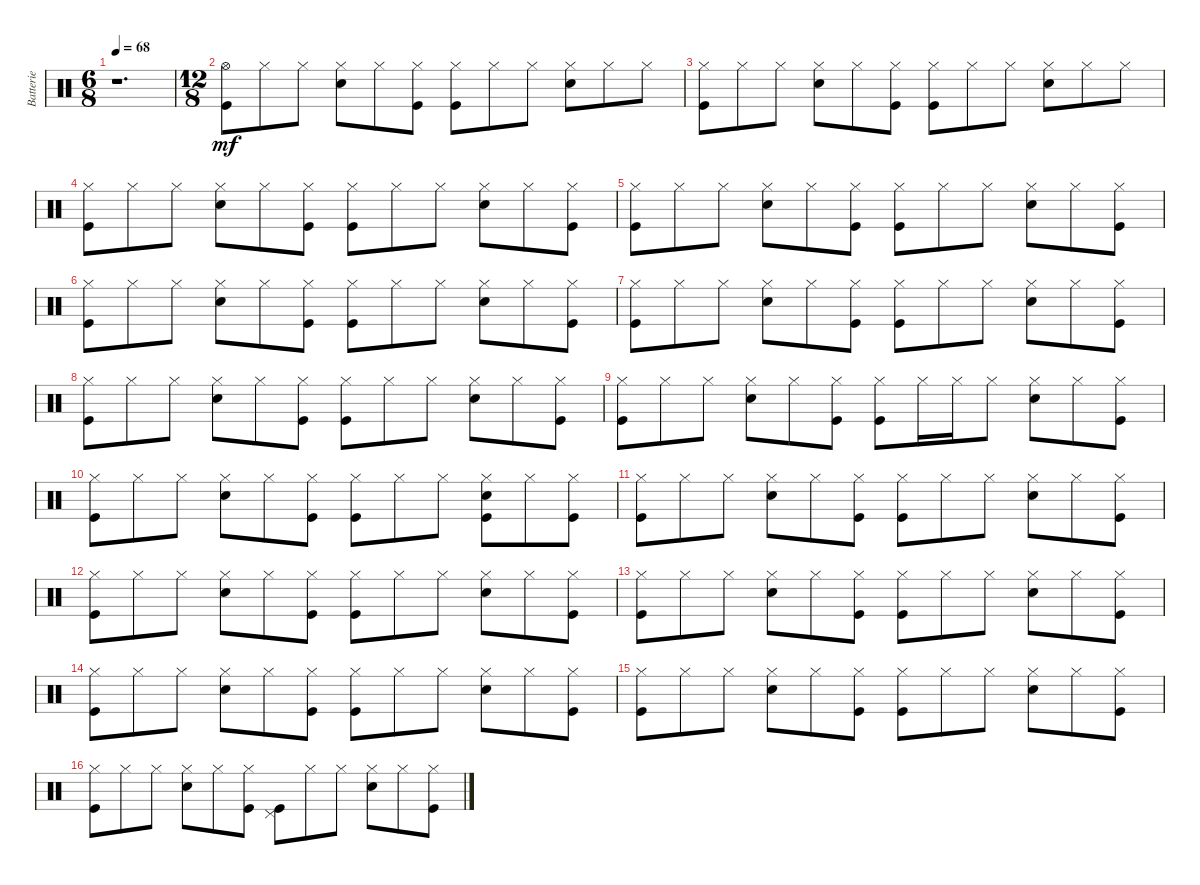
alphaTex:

\track ("Batterie" "Batterie") {instrument percussion}
\staff {score}
\articulation defaults
\ts (6 8)
\tempo 68
\clef neutral
\ks c
r.1{d dy mf} |
\ts (12 8)
("Hi-Hat (open)" "Kick (hit)").8 "Hi-Hat (closed)".8 "Hi-Hat (closed)".8 ("Hi-Hat (closed)" "Snare (hit) 2").8 "Hi-Hat (closed)".8 ("Hi-Hat (closed)" "Kick (hit)").8 ("Hi-Hat (closed)" "Kick (hit)").8 "Hi-Hat (closed)".8 "Hi-Hat (closed)".8 ("Hi-Hat (closed)" "Snare (hit) 2").8 "Hi-Hat (closed)".8 "Hi-Hat (closed)".8 |
("Hi-Hat (closed)" "Kick (hit)").8 "Hi-Hat (closed)".8 "Hi-Hat (closed)".8 ("Hi-Hat (closed)" "Snare (hit) 2").8 "Hi-Hat (closed)".8 ("Hi-Hat (closed)" "Kick (hit)").8 ("Hi-Hat (closed)" "Kick (hit)").8 "Hi-Hat (closed)".8 "Hi-Hat (closed)".8 ("Hi-Hat (closed)" "Snare (hit) 2").8 "Hi-Hat (closed)".8 "Hi-Hat (closed)".8 |
("Hi-Hat (closed)" "Kick (hit)").8 "Hi-Hat (closed)".8 "Hi-Hat (closed)".8 ("Hi-Hat (closed)" "Snare (hit) 2").8 "Hi-Hat (closed)".8 ("Hi-Hat (closed)" "Kick (hit)").8 ("Hi-Hat (closed)" "Kick (hit)").8 "Hi-Hat (closed)".8 "Hi-Hat (closed)".8 ("Hi-Hat (closed)" "Snare (hit) 2").8 "Hi-Hat (closed)".8 ("Hi-Hat (closed)" "Kick (hit)").8 |
("Hi-Hat (closed)" "Kick (hit)").8 "Hi-Hat (closed)".8 "Hi-Hat (closed)".8 ("Hi-Hat (closed)" "Snare (hit) 2").8 "Hi-Hat (closed)".8 ("Hi-Hat (closed)" "Kick (hit)").8 ("Hi-Hat (closed)" "Kick (hit)").8 "Hi-Hat (closed)".8 "Hi-Hat (closed)".8 ("Hi-Hat (closed)" "Snare (hit) 2").8 "Hi-Hat (closed)".8 ("Hi-Hat (closed)" "Kick (hit)").8 |
("Hi-Hat (closed)" "Kick (hit)").8 "Hi-Hat (closed)".8 "Hi-Hat (closed)".8 ("Hi-Hat (closed)" "Snare (hit) 2").8 "Hi-Hat (closed)".8 ("Hi-Hat (closed)" "Kick (hit)").8 ("Hi-Hat (closed)" "Kick (hit)").8 "Hi-Hat (closed)".8 "Hi-Hat (closed)".8 ("Hi-Hat (closed)" "Snare (hit) 2").8 "Hi-Hat (closed)".8 ("Hi-Hat (closed)" "Kick (hit)").8 |
("Hi-Hat (closed)" "Kick (hit)").8 "Hi-Hat (closed)".8 "Hi-Hat (closed)".8 ("Hi-Hat (closed)" "Snare (hit) 2").8 "Hi-Hat (closed)".8 ("Hi-Hat (closed)" "Kick (hit)").8 ("Hi-Hat (closed)" "Kick (hit)").8 "Hi-Hat (closed)".8 "Hi-Hat (closed)".8 ("Hi-Hat (closed)" "Snare (hit) 2").8 "Hi-Hat (closed)".8 ("Hi-Hat (closed)" "Kick (hit)").8 |
("Hi-Hat (closed)" "Kick (hit)").8 "Hi-Hat (closed)".8 "Hi-Hat (closed)".8 ("Hi-Hat (closed)" "Snare (hit) 2").8 "Hi-Hat (closed)".8 ("Hi-Hat (closed)" "Kick (hit)").8 ("Hi-Hat (closed)" "Kick (hit)").8 "Hi-Hat (closed)".8 "Hi-Hat (closed)".8 ("Hi-Hat (closed)" "Snare (hit) 2").8 "Hi-Hat (closed)".8 ("Hi-Hat (closed)" "Kick (hit)").8 |
("Hi-Hat (closed)" "Kick (hit)").8 "Hi-Hat (closed)".8 "Hi-Hat (closed)".8 ("Hi-Hat (closed)" "Snare (hit) 2").8 "Hi-Hat (closed)".8 ("Hi-Hat (closed)" "Kick (hit)").8 ("Hi-Hat (closed)" "Kick (hit)").8 "Hi-Hat (closed)".16 "Hi-Hat (closed)".16 "Hi-Hat (closed)".8 ("Hi-Hat (closed)" "Snare (hit) 2").8 "Hi-Hat (closed)".8 ("Hi-Hat (closed)" "Kick (hit)").8 |
("Hi-Hat (closed)" "Kick (hit)").8 "Hi-Hat (closed)".8 "Hi-Hat (closed)".8 ("Hi-Hat (closed)" "Snare (hit) 2").8 "Hi-Hat (closed)".8 ("Hi-Hat (closed)" "Kick (hit)").8 ("Hi-Hat (closed)" "Kick (hit)").8 "Hi-Hat (closed)".8 "Hi-Hat (closed)".8 ("Hi-Hat (closed)" "Kick (hit)" "Snare (hit) 2").8 "Hi-Hat (closed)".8 ("Hi-Hat (closed)" "Kick (hit)").8 |
("Hi-Hat (closed)" "Kick (hit)").8 "Hi-Hat (closed)".8 "Hi-Hat (closed)".8 ("Hi-Hat (closed)" "Snare (hit) 2").8 "Hi-Hat (closed)".8 ("Hi-Hat (closed)" "Kick (hit)").8 ("Hi-Hat (closed)" "Kick (hit)").8 "Hi-Hat (closed)".8 "Hi-Hat (closed)".8 ("Hi-Hat (closed)" "Snare (hit) 2").8 "Hi-Hat (closed)".8 ("Hi-Hat (closed)" "Kick (hit)").8 |
("Hi-Hat (closed)" "Kick (hit)").8 "Hi-Hat (closed)".8 "Hi-Hat (closed)".8 ("Hi-Hat (closed)" "Snare (hit) 2").8 "Hi-Hat (closed)".8 ("Hi-Hat (closed)" "Kick (hit)").8 ("Hi-Hat (closed)" "Kick (hit)").8 "Hi-Hat (closed)".8 "Hi-Hat (closed)".8 ("Hi-Hat (closed)" "Snare (hit) 2").8 "Hi-Hat (closed)".8 ("Hi-Hat (closed)" "Kick (hit)").8 |
("Hi-Hat (closed)" "Kick (hit)").8 "Hi-Hat (closed)".8 "Hi-Hat (closed)".8 ("Hi-Hat (closed)" "Snare (hit) 2").8 "Hi-Hat (closed)".8 ("Hi-Hat (closed)" "Kick (hit)").8 ("Hi-Hat (closed)" "Kick (hit)").8 "Hi-Hat (closed)".8 "Hi-Hat (closed)".8 ("Hi-Hat (closed)" "Snare (hit) 2").8 "Hi-Hat (closed)".8 ("Hi-Hat (closed)" "Kick (hit)").8 |
("Hi-Hat (closed)" "Kick (hit)").8 "Hi-Hat (closed)".8 "Hi-Hat (closed)".8 ("Hi-Hat (closed)" "Snare (hit) 2").8 "Hi-Hat (closed)".8 ("Hi-Hat (closed)" "Kick (hit)").8 ("Hi-Hat (closed)" "Kick (hit)").8 "Hi-Hat (closed)".8 "Hi-Hat (closed)".8 ("Hi-Hat (closed)" "Snare (hit) 2").8 "Hi-Hat (closed)".8 ("Hi-Hat (closed)" "Kick (hit)").8 |
("Hi-Hat (closed)" "Kick (hit)").8 "Hi-Hat (closed)".8 "Hi-Hat (closed)".8 ("Hi-Hat (closed)" "Snare (hit) 2").8 "Hi-Hat (closed)".8 ("Hi-Hat (closed)" "Kick (hit)").8 ("Hi-Hat (closed)" "Kick (hit)").8 "Hi-Hat (closed)".8 "Hi-Hat (closed)".8 ("Hi-Hat (closed)" "Snare (hit) 2").8 "Hi-Hat (closed)".8 ("Hi-Hat (closed)" "Kick (hit)").8 |
("Hi-Hat (closed)" "Kick (hit)").8 "Hi-Hat (closed)".8 "Hi-Hat (closed)".8 ("Hi-Hat (closed)" "Snare (hit) 2").8 "Hi-Hat (closed)".8 ("Hi-Hat (closed)" "Kick (hit)").8 ("Pedal Hi-Hat (hit)" "Kick (hit)").8 "Hi-Hat (closed)".8 "Hi-Hat (closed)".8 ("Hi-Hat (closed)" "Snare (hit) 2").8 "Hi-Hat (closed)".8 ("Hi-Hat (closed)" "Kick (hit)").8
